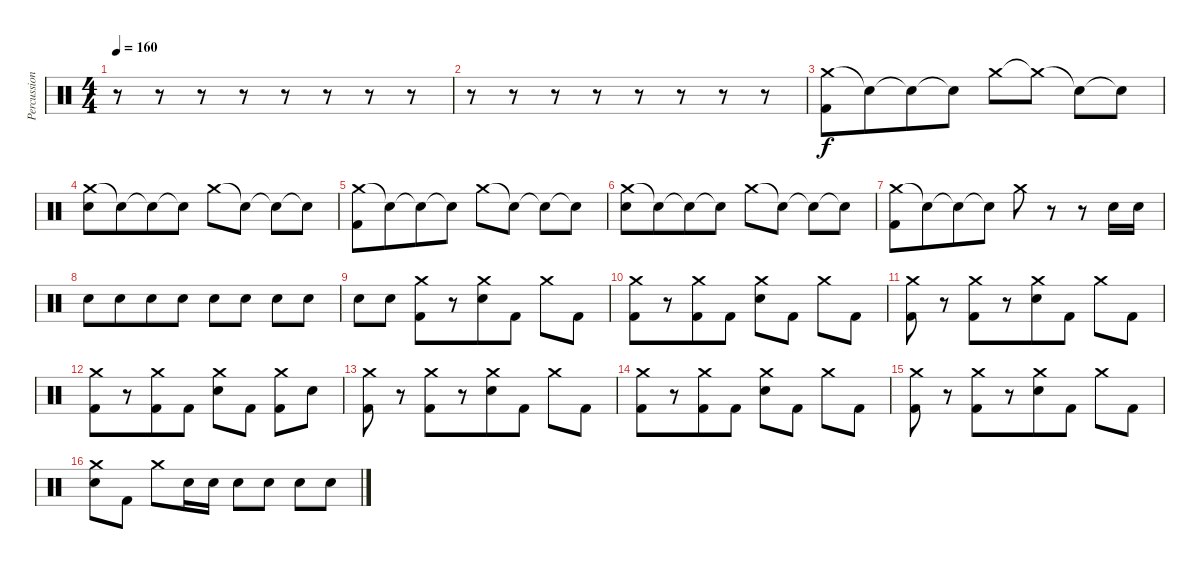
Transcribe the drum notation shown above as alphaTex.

\track ("Percussion" "Percussion") {instrument percussion}
\staff {score}
\articulation defaults
\ts (4 4)
\tempo 160
\clef neutral
\ks c
r.8{dy f} r.8 r.8{beam merge} r.8{beam merge} r.8 r.8{beam merge} r.8{beam merge} r.8 |
r.8 r.8 r.8 r.8 r.8{beam merge} r.8 r.8 r.8 |
("Crash medium (hit)" "Kick (hit) 2").8 "Snare (hit)"{t}.8{beam merge} "Snare (hit)"{t}.8 "Snare (hit)"{t}.8 "Crash medium (hit)".8 "Crash medium (hit)"{t}.8 "Snare (hit)"{t}.8{beam merge} "Snare (hit)"{t}.8 |
("Crash medium (hit)" "Electric Snare (hit)").8 "Snare (hit)"{t}.8{beam merge} "Snare (hit)"{t}.8 "Snare (hit)"{t}.8 "Crash medium (hit)".8{beam merge} "Snare (hit)"{t}.8 "Snare (hit)"{t}.8 "Snare (hit)"{t}.8 |
("Crash medium (hit)" "Kick (hit) 2").8 "Snare (hit)"{t}.8{beam merge} "Snare (hit)"{t}.8 "Snare (hit)"{t}.8 "Crash medium (hit)".8 "Snare (hit)"{t}.8 "Snare (hit)"{t}.8{beam merge} "Snare (hit)"{t}.8 |
("Crash medium (hit)" "Electric Snare (hit)").8 "Snare (hit)"{t}.8{beam merge} "Snare (hit)"{t}.8 "Snare (hit)"{t}.8 "Crash medium (hit)".8{beam merge} "Snare (hit)"{t}.8 "Snare (hit)"{t}.8 "Snare (hit)"{t}.8 |
("Crash medium (hit)" "Kick (hit) 2").8 "Snare (hit)"{t}.8{beam merge} "Snare (hit)"{t}.8 "Snare (hit)"{t}.8 "Crash medium (hit)".8 r.8 r.8{beam merge} "Electric Snare (hit)".16 "Electric Snare (hit)".16 |
"Electric Snare (hit)".8{beam merge} "Electric Snare (hit)".8{beam merge} "Electric Snare (hit)".8 "Electric Snare (hit)".8 "Electric Snare (hit)".8 "Electric Snare (hit)".8 "Electric Snare (hit)".8{beam merge} "Electric Snare (hit)".8 |
"Electric Snare (hit)".8 "Electric Snare (hit)".8 ("Crash medium (hit)" "Kick (hit) 2").8{beam merge} r.8 ("Crash medium (hit)" "Electric Snare (hit)").8{beam merge} "Kick (hit) 2".8 "Crash medium (hit)".8{beam merge} "Kick (hit) 2".8 |
("Crash medium (hit)" "Kick (hit) 2").8{beam merge} r.8 ("Crash medium (hit)" "Kick (hit) 2").8{beam merge} "Kick (hit) 2".8 ("Crash medium (hit)" "Electric Snare (hit)").8 "Kick (hit) 2".8 "Crash medium (hit)".8{beam merge} "Kick (hit) 2".8 |
("Crash medium (hit)" "Kick (hit) 2").8 r.8 ("Crash medium (hit)" "Kick (hit) 2").8{beam merge} r.8 ("Crash medium (hit)" "Electric Snare (hit)").8{beam merge} "Kick (hit) 2".8 "Crash medium (hit)".8{beam merge} "Kick (hit) 2".8 |
("Crash medium (hit)" "Kick (hit) 2").8{beam merge} r.8 ("Crash medium (hit)" "Kick (hit) 2").8{beam merge} "Kick (hit) 2".8 ("Crash medium (hit)" "Electric Snare (hit)").8 "Kick (hit) 2".8 ("Crash medium (hit)" "Kick (hit) 2").8 "Electric Snare (hit)".8 |
("Crash medium (hit)" "Kick (hit) 2").8 r.8 ("Crash medium (hit)" "Kick (hit) 2").8{beam merge} r.8 ("Crash medium (hit)" "Electric Snare (hit)").8{beam merge} "Kick (hit) 2".8 "Crash medium (hit)".8{beam merge} "Kick (hit) 2".8 |
("Crash medium (hit)" "Kick (hit) 2").8{beam merge} r.8 ("Crash medium (hit)" "Kick (hit) 2").8{beam merge} "Kick (hit) 2".8 ("Crash medium (hit)" "Electric Snare (hit)").8 "Kick (hit) 2".8 "Crash medium (hit)".8{beam merge} "Kick (hit) 2".8 |
("Crash medium (hit)" "Kick (hit) 2").8 r.8 ("Crash medium (hit)" "Kick (hit) 2").8{beam merge} r.8 ("Crash medium (hit)" "Electric Snare (hit)").8{beam merge} "Kick (hit) 2".8 "Crash medium (hit)".8{beam merge} "Kick (hit) 2".8 |
("Crash medium (hit)" "Electric Snare (hit)").8{beam merge} "Kick (hit) 2".8 "Crash medium (hit)".8 "Electric Snare (hit)".16 "Electric Snare (hit)".16 "Electric Snare (hit)".8{beam merge} "Electric Snare (hit)".8 "Electric Snare (hit)".8 "Electric Snare (hit)".8
